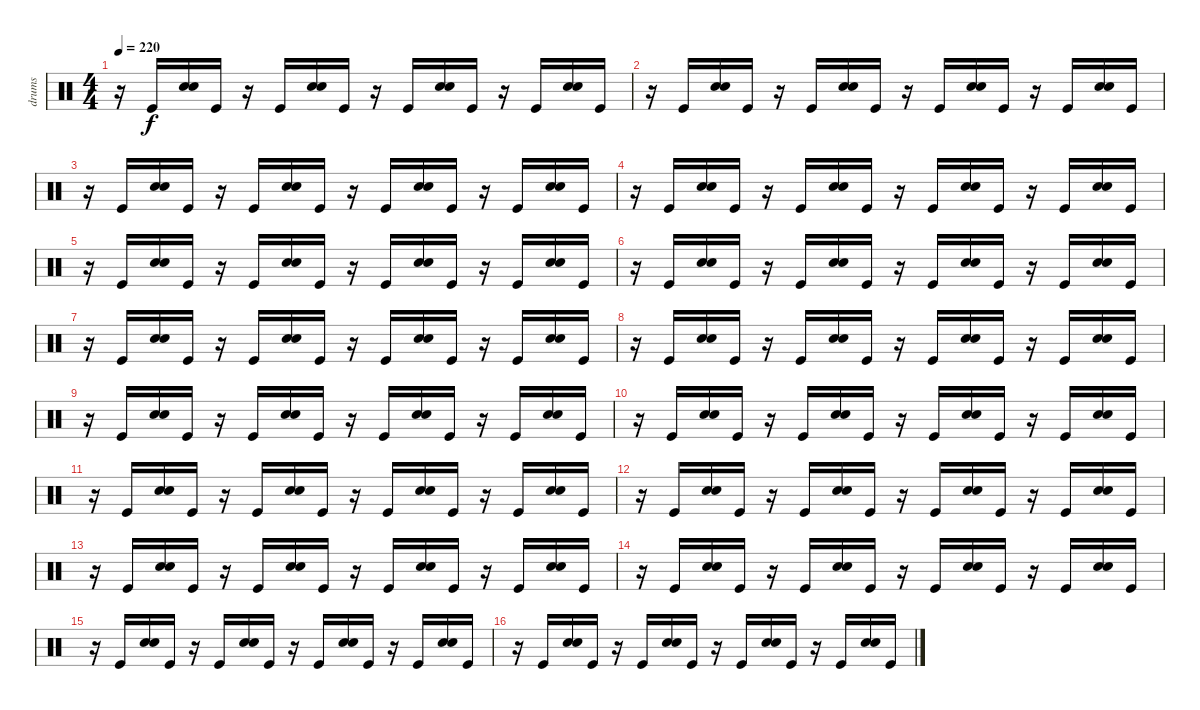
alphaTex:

\track ("drums" "drums") {instrument percussion}
\staff {score}
\articulation defaults
\ts (4 4)
\tempo 220
\clef neutral
\ks c
r.16{dy f} "Kick (hit)".16 ("Electric Snare (hit)" "Snare (hit) 2").16 "Kick (hit)".16 r.16 "Kick (hit)".16 ("Electric Snare (hit)" "Snare (hit) 2").16 "Kick (hit)".16 r.16 "Kick (hit)".16 ("Electric Snare (hit)" "Snare (hit) 2").16 "Kick (hit)".16 r.16 "Kick (hit)".16 ("Electric Snare (hit)" "Snare (hit) 2").16 "Kick (hit)".16 |
r.16 "Kick (hit)".16 ("Electric Snare (hit)" "Snare (hit) 2").16 "Kick (hit)".16 r.16 "Kick (hit)".16 ("Electric Snare (hit)" "Snare (hit) 2").16 "Kick (hit)".16 r.16 "Kick (hit)".16 ("Electric Snare (hit)" "Snare (hit) 2").16 "Kick (hit)".16 r.16 "Kick (hit)".16 ("Electric Snare (hit)" "Snare (hit) 2").16 "Kick (hit)".16 |
r.16 "Kick (hit)".16 ("Electric Snare (hit)" "Snare (hit) 2").16 "Kick (hit)".16 r.16 "Kick (hit)".16 ("Electric Snare (hit)" "Snare (hit) 2").16 "Kick (hit)".16 r.16 "Kick (hit)".16 ("Electric Snare (hit)" "Snare (hit) 2").16 "Kick (hit)".16 r.16 "Kick (hit)".16 ("Electric Snare (hit)" "Snare (hit) 2").16 "Kick (hit)".16 |
r.16 "Kick (hit)".16 ("Electric Snare (hit)" "Snare (hit) 2").16 "Kick (hit)".16 r.16 "Kick (hit)".16 ("Electric Snare (hit)" "Snare (hit) 2").16 "Kick (hit)".16 r.16 "Kick (hit)".16 ("Electric Snare (hit)" "Snare (hit) 2").16 "Kick (hit)".16 r.16 "Kick (hit)".16 ("Electric Snare (hit)" "Snare (hit) 2").16 "Kick (hit)".16 |
r.16 "Kick (hit)".16 ("Electric Snare (hit)" "Snare (hit) 2").16 "Kick (hit)".16 r.16 "Kick (hit)".16 ("Electric Snare (hit)" "Snare (hit) 2").16 "Kick (hit)".16 r.16 "Kick (hit)".16 ("Electric Snare (hit)" "Snare (hit) 2").16 "Kick (hit)".16 r.16 "Kick (hit)".16 ("Electric Snare (hit)" "Snare (hit) 2").16 "Kick (hit)".16 |
r.16 "Kick (hit)".16 ("Electric Snare (hit)" "Snare (hit) 2").16 "Kick (hit)".16 r.16 "Kick (hit)".16 ("Electric Snare (hit)" "Snare (hit) 2").16 "Kick (hit)".16 r.16 "Kick (hit)".16 ("Electric Snare (hit)" "Snare (hit) 2").16 "Kick (hit)".16 r.16 "Kick (hit)".16 ("Electric Snare (hit)" "Snare (hit) 2").16 "Kick (hit)".16 |
r.16 "Kick (hit)".16 ("Electric Snare (hit)" "Snare (hit) 2").16 "Kick (hit)".16 r.16 "Kick (hit)".16 ("Electric Snare (hit)" "Snare (hit) 2").16 "Kick (hit)".16 r.16 "Kick (hit)".16 ("Electric Snare (hit)" "Snare (hit) 2").16 "Kick (hit)".16 r.16 "Kick (hit)".16 ("Electric Snare (hit)" "Snare (hit) 2").16 "Kick (hit)".16 |
r.16 "Kick (hit)".16 ("Electric Snare (hit)" "Snare (hit) 2").16 "Kick (hit)".16 r.16 "Kick (hit)".16 ("Electric Snare (hit)" "Snare (hit) 2").16 "Kick (hit)".16 r.16 "Kick (hit)".16 ("Electric Snare (hit)" "Snare (hit) 2").16 "Kick (hit)".16 r.16 "Kick (hit)".16 ("Electric Snare (hit)" "Snare (hit) 2").16 "Kick (hit)".16 |
r.16 "Kick (hit)".16 ("Electric Snare (hit)" "Snare (hit) 2").16 "Kick (hit)".16 r.16 "Kick (hit)".16 ("Electric Snare (hit)" "Snare (hit) 2").16 "Kick (hit)".16 r.16 "Kick (hit)".16 ("Electric Snare (hit)" "Snare (hit) 2").16 "Kick (hit)".16 r.16 "Kick (hit)".16 ("Electric Snare (hit)" "Snare (hit) 2").16 "Kick (hit)".16 |
r.16 "Kick (hit)".16 ("Electric Snare (hit)" "Snare (hit) 2").16 "Kick (hit)".16 r.16 "Kick (hit)".16 ("Electric Snare (hit)" "Snare (hit) 2").16 "Kick (hit)".16 r.16 "Kick (hit)".16 ("Electric Snare (hit)" "Snare (hit) 2").16 "Kick (hit)".16 r.16 "Kick (hit)".16 ("Electric Snare (hit)" "Snare (hit) 2").16 "Kick (hit)".16 |
r.16 "Kick (hit)".16 ("Electric Snare (hit)" "Snare (hit) 2").16 "Kick (hit)".16 r.16 "Kick (hit)".16 ("Electric Snare (hit)" "Snare (hit) 2").16 "Kick (hit)".16 r.16 "Kick (hit)".16 ("Electric Snare (hit)" "Snare (hit) 2").16 "Kick (hit)".16 r.16 "Kick (hit)".16 ("Electric Snare (hit)" "Snare (hit) 2").16 "Kick (hit)".16 |
r.16 "Kick (hit)".16 ("Electric Snare (hit)" "Snare (hit) 2").16 "Kick (hit)".16 r.16 "Kick (hit)".16 ("Electric Snare (hit)" "Snare (hit) 2").16 "Kick (hit)".16 r.16 "Kick (hit)".16 ("Electric Snare (hit)" "Snare (hit) 2").16 "Kick (hit)".16 r.16 "Kick (hit)".16 ("Electric Snare (hit)" "Snare (hit) 2").16 "Kick (hit)".16 |
r.16 "Kick (hit)".16 ("Electric Snare (hit)" "Snare (hit) 2").16 "Kick (hit)".16 r.16 "Kick (hit)".16 ("Electric Snare (hit)" "Snare (hit) 2").16 "Kick (hit)".16 r.16 "Kick (hit)".16 ("Electric Snare (hit)" "Snare (hit) 2").16 "Kick (hit)".16 r.16 "Kick (hit)".16 ("Electric Snare (hit)" "Snare (hit) 2").16 "Kick (hit)".16 |
r.16 "Kick (hit)".16 ("Electric Snare (hit)" "Snare (hit) 2").16 "Kick (hit)".16 r.16 "Kick (hit)".16 ("Electric Snare (hit)" "Snare (hit) 2").16 "Kick (hit)".16 r.16 "Kick (hit)".16 ("Electric Snare (hit)" "Snare (hit) 2").16 "Kick (hit)".16 r.16 "Kick (hit)".16 ("Electric Snare (hit)" "Snare (hit) 2").16 "Kick (hit)".16 |
r.16 "Kick (hit)".16 ("Electric Snare (hit)" "Snare (hit) 2").16 "Kick (hit)".16 r.16 "Kick (hit)".16 ("Electric Snare (hit)" "Snare (hit) 2").16 "Kick (hit)".16 r.16 "Kick (hit)".16 ("Electric Snare (hit)" "Snare (hit) 2").16 "Kick (hit)".16 r.16 "Kick (hit)".16 ("Electric Snare (hit)" "Snare (hit) 2").16 "Kick (hit)".16 |
r.16 "Kick (hit)".16 ("Electric Snare (hit)" "Snare (hit) 2").16 "Kick (hit)".16 r.16 "Kick (hit)".16 ("Electric Snare (hit)" "Snare (hit) 2").16 "Kick (hit)".16 r.16 "Kick (hit)".16 ("Electric Snare (hit)" "Snare (hit) 2").16 "Kick (hit)".16 r.16 "Kick (hit)".16 ("Electric Snare (hit)" "Snare (hit) 2").16 "Kick (hit)".16
